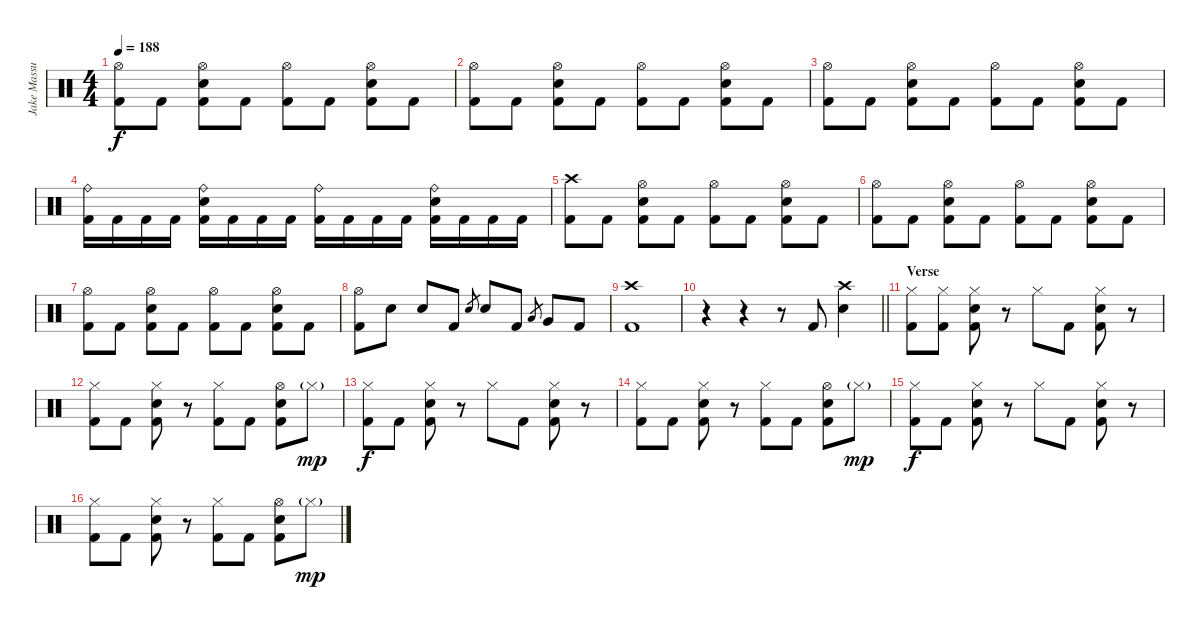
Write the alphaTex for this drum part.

\track ("Jake Massucco" "Jake Massu") {instrument percussion}
\staff {score}
\articulation defaults
\ts (4 4)
\tempo 188
\clef neutral
\ks c
("Hi-Hat (open)" "Kick (hit) 2").8{dy f} "Kick (hit) 2".8 ("Hi-Hat (open)" "Electric Snare (hit)" "Kick (hit) 2").8 "Kick (hit) 2".8 ("Hi-Hat (open)" "Kick (hit) 2").8 "Kick (hit) 2".8 ("Hi-Hat (open)" "Electric Snare (hit)" "Kick (hit) 2").8 "Kick (hit) 2".8 |
("Hi-Hat (open)" "Kick (hit) 2").8 "Kick (hit) 2".8 ("Hi-Hat (open)" "Electric Snare (hit)" "Kick (hit) 2").8 "Kick (hit) 2".8 ("Hi-Hat (open)" "Kick (hit) 2").8 "Kick (hit) 2".8 ("Hi-Hat (open)" "Electric Snare (hit)" "Kick (hit) 2").8 "Kick (hit) 2".8 |
("Hi-Hat (open)" "Kick (hit) 2").8 "Kick (hit) 2".8 ("Hi-Hat (open)" "Electric Snare (hit)" "Kick (hit) 2").8 "Kick (hit) 2".8 ("Hi-Hat (open)" "Kick (hit) 2").8 "Kick (hit) 2".8 ("Hi-Hat (open)" "Electric Snare (hit)" "Kick (hit) 2").8 "Kick (hit) 2".8 |
("Ride (bell)" "Kick (hit) 2").16 "Kick (hit) 2".16 "Kick (hit) 2".16 "Kick (hit) 2".16 ("Ride (bell)" "Electric Snare (hit)" "Kick (hit) 2").16 "Kick (hit) 2".16 "Kick (hit) 2".16 "Kick (hit) 2".16 ("Ride (bell)" "Kick (hit) 2").16 "Kick (hit) 2".16 "Kick (hit) 2".16 "Kick (hit) 2".16 ("Ride (bell)" "Electric Snare (hit)" "Kick (hit) 2").16 "Kick (hit) 2".16 "Kick (hit) 2".16 "Kick (hit) 2".16 |
("Crash high (hit)" "Kick (hit) 2").8 "Kick (hit) 2".8 ("Hi-Hat (open)" "Electric Snare (hit)" "Kick (hit) 2").8 "Kick (hit) 2".8 ("Hi-Hat (open)" "Kick (hit) 2").8 "Kick (hit) 2".8 ("Hi-Hat (open)" "Electric Snare (hit)" "Kick (hit) 2").8 "Kick (hit) 2".8 |
("Hi-Hat (open)" "Kick (hit) 2").8 "Kick (hit) 2".8 ("Hi-Hat (open)" "Electric Snare (hit)" "Kick (hit) 2").8 "Kick (hit) 2".8 ("Hi-Hat (open)" "Kick (hit) 2").8 "Kick (hit) 2".8 ("Hi-Hat (open)" "Electric Snare (hit)" "Kick (hit) 2").8 "Kick (hit) 2".8 |
("Hi-Hat (open)" "Kick (hit) 2").8 "Kick (hit) 2".8 ("Hi-Hat (open)" "Electric Snare (hit)" "Kick (hit) 2").8 "Kick (hit) 2".8 ("Hi-Hat (open)" "Kick (hit) 2").8 "Kick (hit) 2".8 ("Hi-Hat (open)" "Electric Snare (hit)" "Kick (hit) 2").8 "Kick (hit) 2".8 |
("Hi-Hat (open)" "Kick (hit) 2").8 "Electric Snare (hit)".8 "Electric Snare (hit)".8 "Kick (hit) 2".8 "Electric Snare (hit)".8{gr} "Electric Snare (hit)".8 "Kick (hit) 2".8 "Low Floor Tom (hit)".8{gr} "Very Low Tom (hit)".8 "Kick (hit) 2".8 |
("Crash high (hit)" "Kick (hit) 2").1 |
\barLineRight lightlight
r.4 r.4 r.8 "Kick (hit) 2".8 ("Crash high (hit)" "Electric Snare (hit)").4 |
\section ("" "Verse")
("Hi-Hat (closed)" "Kick (hit) 2").8 ("Hi-Hat (closed)" "Kick (hit) 2").8 ("Hi-Hat (closed)" "Electric Snare (hit)" "Kick (hit) 2").8 r.8 "Hi-Hat (closed)".8 "Kick (hit) 2".8 ("Hi-Hat (closed)" "Electric Snare (hit)" "Kick (hit) 2").8 r.8 |
("Hi-Hat (closed)" "Kick (hit) 2").8 "Kick (hit) 2".8 ("Hi-Hat (closed)" "Electric Snare (hit)" "Kick (hit) 2").8 r.8 ("Hi-Hat (closed)" "Kick (hit) 2").8 "Kick (hit) 2".8 ("Hi-Hat (open)" "Electric Snare (hit)" "Kick (hit) 2").8 "Hi-Hat (closed)"{g}.8{dy mp} |
("Hi-Hat (closed)" "Kick (hit) 2").8{dy f} "Kick (hit) 2".8 ("Hi-Hat (closed)" "Electric Snare (hit)" "Kick (hit) 2").8 r.8 "Hi-Hat (closed)".8 "Kick (hit) 2".8 ("Hi-Hat (closed)" "Electric Snare (hit)" "Kick (hit) 2").8 r.8 |
("Hi-Hat (closed)" "Kick (hit) 2").8 "Kick (hit) 2".8 ("Hi-Hat (closed)" "Electric Snare (hit)" "Kick (hit) 2").8 r.8 ("Hi-Hat (closed)" "Kick (hit) 2").8 "Kick (hit) 2".8 ("Hi-Hat (open)" "Electric Snare (hit)" "Kick (hit) 2").8 "Hi-Hat (closed)"{g}.8{dy mp} |
("Hi-Hat (closed)" "Kick (hit) 2").8{dy f} "Kick (hit) 2".8 ("Hi-Hat (closed)" "Electric Snare (hit)" "Kick (hit) 2").8 r.8 "Hi-Hat (closed)".8 "Kick (hit) 2".8 ("Hi-Hat (closed)" "Electric Snare (hit)" "Kick (hit) 2").8 r.8 |
("Hi-Hat (closed)" "Kick (hit) 2").8 "Kick (hit) 2".8 ("Hi-Hat (closed)" "Electric Snare (hit)" "Kick (hit) 2").8 r.8 ("Hi-Hat (closed)" "Kick (hit) 2").8 "Kick (hit) 2".8 ("Hi-Hat (open)" "Electric Snare (hit)" "Kick (hit) 2").8 "Hi-Hat (closed)"{g}.8{dy mp}
